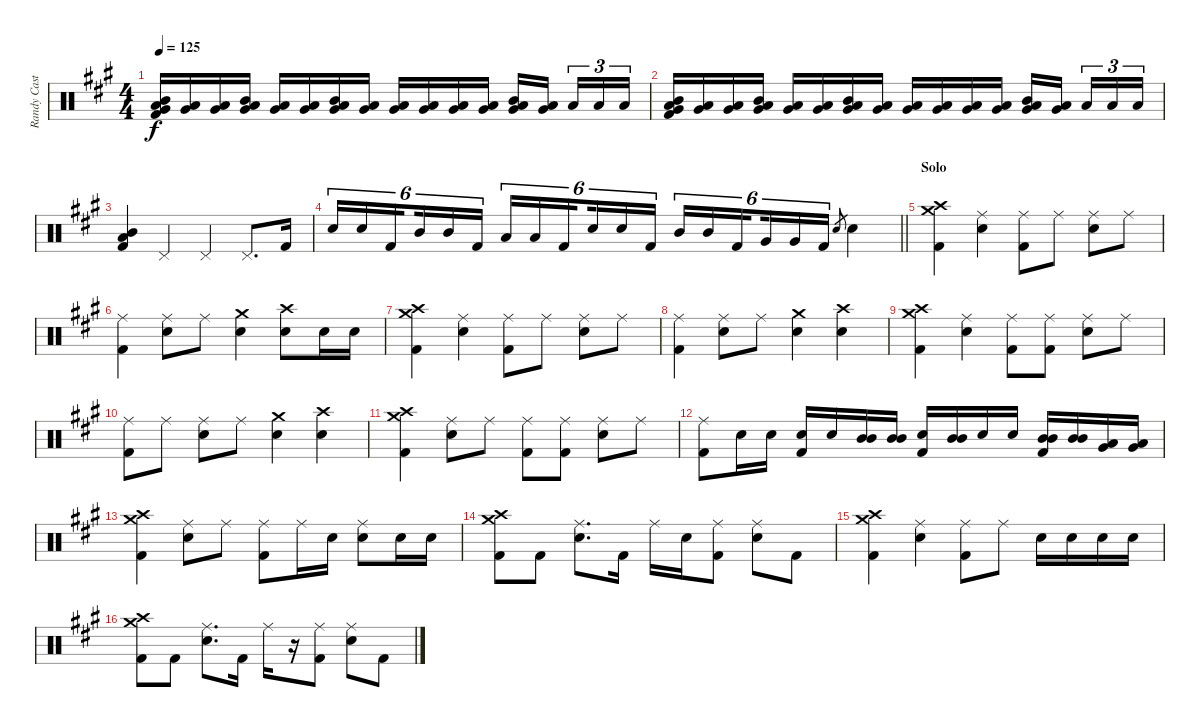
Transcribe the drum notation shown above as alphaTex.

\track ("Randy Castillo - Drums" "Randy Cast") {instrument percussion}
\staff {score}
\articulation defaults
\ts (4 4)
\tempo 125
\clef neutral
\ks a
("Mid Tom (hit)" "Low Tom (hit)" "Very Low Tom (hit)" "Kick (hit) 2").16{dy f} ("Low Tom (hit)" "Very Low Tom (hit)").16 ("Low Tom (hit)" "Very Low Tom (hit)").16 ("Mid Tom (hit)" "Low Tom (hit)" "Very Low Tom (hit)").16 ("Low Tom (hit)" "Very Low Tom (hit)").16 ("Low Tom (hit)" "Very Low Tom (hit)").16 ("Mid Tom (hit)" "Low Tom (hit)" "Very Low Tom (hit)").16 ("Low Tom (hit)" "Very Low Tom (hit)").16 ("Low Tom (hit)" "Very Low Tom (hit)").16 ("Low Tom (hit)" "Very Low Tom (hit)").16 ("Low Tom (hit)" "Very Low Tom (hit)").16 ("Low Tom (hit)" "Very Low Tom (hit)").16 ("Mid Tom (hit)" "Low Tom (hit)" "Very Low Tom (hit)").16 ("Low Tom (hit)" "Very Low Tom (hit)").16{beam splitsecondary} "Low Tom (hit)".16{tu (3 2)} "Low Tom (hit)".16{tu (3 2)} "Low Tom (hit)".16{tu (3 2)} |
("Mid Tom (hit)" "Low Tom (hit)" "Very Low Tom (hit)" "Kick (hit) 2").16 ("Low Tom (hit)" "Very Low Tom (hit)").16 ("Low Tom (hit)" "Very Low Tom (hit)").16 ("Mid Tom (hit)" "Low Tom (hit)" "Very Low Tom (hit)").16 ("Low Tom (hit)" "Very Low Tom (hit)").16 ("Low Tom (hit)" "Very Low Tom (hit)").16 ("Mid Tom (hit)" "Low Tom (hit)" "Very Low Tom (hit)").16 ("Low Tom (hit)" "Very Low Tom (hit)").16 ("Low Tom (hit)" "Very Low Tom (hit)").16 ("Low Tom (hit)" "Very Low Tom (hit)").16 ("Low Tom (hit)" "Very Low Tom (hit)").16 ("Low Tom (hit)" "Very Low Tom (hit)").16 ("Mid Tom (hit)" "Low Tom (hit)" "Very Low Tom (hit)").16 ("Low Tom (hit)" "Very Low Tom (hit)").16{beam splitsecondary} "Low Tom (hit)".16{tu (3 2)} "Low Tom (hit)".16{tu (3 2)} "Low Tom (hit)".16{tu (3 2)} |
("Mid Tom (hit)" "Low Tom (hit)" "Kick (hit) 2").4 "Pedal Hi-Hat (hit)".4 "Pedal Hi-Hat (hit)".4 "Pedal Hi-Hat (hit)".8{d} "Kick (hit) 2".16 |
\barLineRight lightlight "Snare (hit) 2".16{tu (6 4)} "Snare (hit) 2".16{tu (6 4)} "Kick (hit) 2".16{tu (6 4) beam splitsecondary} "Mid Tom (hit)".16{tu (6 4)} "Mid Tom (hit)".16{tu (6 4)} "Kick (hit) 2".16{tu (6 4)} "Low Tom (hit)".16{tu (6 4)} "Low Tom (hit)".16{tu (6 4)} "Kick (hit) 2".16{tu (6 4) beam splitsecondary} "Snare (hit) 2".16{tu (6 4)} "Snare (hit) 2".16{tu (6 4)} "Kick (hit) 2".16{tu (6 4)} "Mid Tom (hit)".16{tu (6 4)} "Mid Tom (hit)".16{tu (6 4)} "Kick (hit) 2".16{tu (6 4) beam splitsecondary} "Very Low Tom (hit)".16{tu (6 4)} "Very Low Tom (hit)".16{tu (6 4)} "Kick (hit) 2".16{tu (6 4)} "Snare (hit) 2".8{gr} "Snare (hit) 2".4
|
\section ("" "Solo")
("Crash medium (hit)" "Crash high (hit)" "Kick (hit) 2").4 ("Ride (middle)" "Snare (hit) 2").4 ("Ride (middle)" "Kick (hit) 2").8 "Ride (middle)".8 ("Ride (middle)" "Snare (hit) 2").8 "Ride (middle)".8 |
("Ride (middle)" "Kick (hit) 2").4 ("Ride (middle)" "Snare (hit) 2").8 "Ride (middle)".8 ("Crash medium (hit)" "Snare (hit) 2").4 ("Crash high (hit)" "Snare (hit) 2").8 "Snare (hit) 2".16 "Snare (hit) 2".16 |
("Crash medium (hit)" "Crash high (hit)" "Kick (hit) 2").4 ("Ride (middle)" "Snare (hit) 2").4 ("Ride (middle)" "Kick (hit) 2").8 "Ride (middle)".8 ("Ride (middle)" "Snare (hit) 2").8 "Ride (middle)".8 |
("Ride (middle)" "Kick (hit) 2").4 ("Ride (middle)" "Snare (hit) 2").8 "Ride (middle)".8 ("Crash medium (hit)" "Snare (hit) 2").4 ("Crash high (hit)" "Snare (hit) 2").4 |
("Crash medium (hit)" "Crash high (hit)" "Kick (hit) 2").4 ("Ride (middle)" "Snare (hit) 2").4 ("Ride (middle)" "Kick (hit) 2").8 ("Ride (middle)" "Kick (hit) 2").8 ("Ride (middle)" "Snare (hit) 2").8 "Ride (middle)".8 |
("Ride (middle)" "Kick (hit) 2").8 "Ride (middle)".8 ("Ride (middle)" "Snare (hit) 2").8 "Ride (middle)".8 ("Crash medium (hit)" "Snare (hit) 2").4 ("Crash high (hit)" "Snare (hit) 2").4 |
("Crash medium (hit)" "Crash high (hit)" "Kick (hit) 2").4 ("Ride (middle)" "Snare (hit) 2").8 "Ride (middle)".8 ("Ride (middle)" "Kick (hit) 2").8 ("Ride (middle)" "Kick (hit) 2").8 ("Ride (middle)" "Snare (hit) 2").8 "Ride (middle)".8 |
("Ride (middle)" "Kick (hit) 2").8 "Snare (hit) 2".16 "Snare (hit) 2".16 ("Snare (hit) 2" "Kick (hit) 2").16 "Snare (hit) 2".16 ("Mid Tom (hit)" "Mid Tom (hit)").16 ("Mid Tom (hit)" "Mid Tom (hit)").16 ("Snare (hit) 2" "Kick (hit) 2").16 ("Mid Tom (hit)" "Mid Tom (hit)").16 "Snare (hit) 2".16 "Snare (hit) 2".16 ("Mid Tom (hit)" "Mid Tom (hit)" "Kick (hit) 2").16 ("Mid Tom (hit)" "Mid Tom (hit)").16 ("Very Low Tom (hit)" "Low Tom (hit)").16 ("Low Tom (hit)" "Very Low Tom (hit)").16 |
("Crash medium (hit)" "Crash high (hit)" "Kick (hit) 2").4 ("Ride (middle)" "Snare (hit) 2").8 "Ride (middle)".8 ("Ride (middle)" "Kick (hit) 2").8 "Ride (middle)".16 "Snare (hit) 2".16 ("Ride (middle)" "Snare (hit) 2").8 "Snare (hit) 2".16 "Snare (hit) 2".16 |
("Crash medium (hit)" "Crash high (hit)" "Kick (hit) 2").8 "Kick (hit) 2".8 ("Ride (middle)" "Snare (hit) 2").8{d} "Kick (hit) 2".16 "Ride (middle)".16 "Snare (hit) 2".16 ("Ride (middle)" "Kick (hit) 2").8 ("Ride (middle)" "Snare (hit) 2").8 "Kick (hit) 2".8 |
("Crash medium (hit)" "Crash high (hit)" "Kick (hit) 2").4 ("Ride (middle)" "Snare (hit) 2").4 ("Ride (middle)" "Kick (hit) 2").8 "Ride (middle)".8 "Snare (hit) 2".16 "Snare (hit) 2".16 "Snare (hit) 2".16 "Snare (hit) 2".16 |
("Crash medium (hit)" "Crash high (hit)" "Kick (hit) 2").8 "Kick (hit) 2".8 ("Ride (middle)" "Snare (hit) 2").8{d} "Kick (hit) 2".16 "Ride (middle)".16 r.16 ("Ride (middle)" "Kick (hit) 2").8 ("Ride (middle)" "Snare (hit) 2").8 "Kick (hit) 2".8
